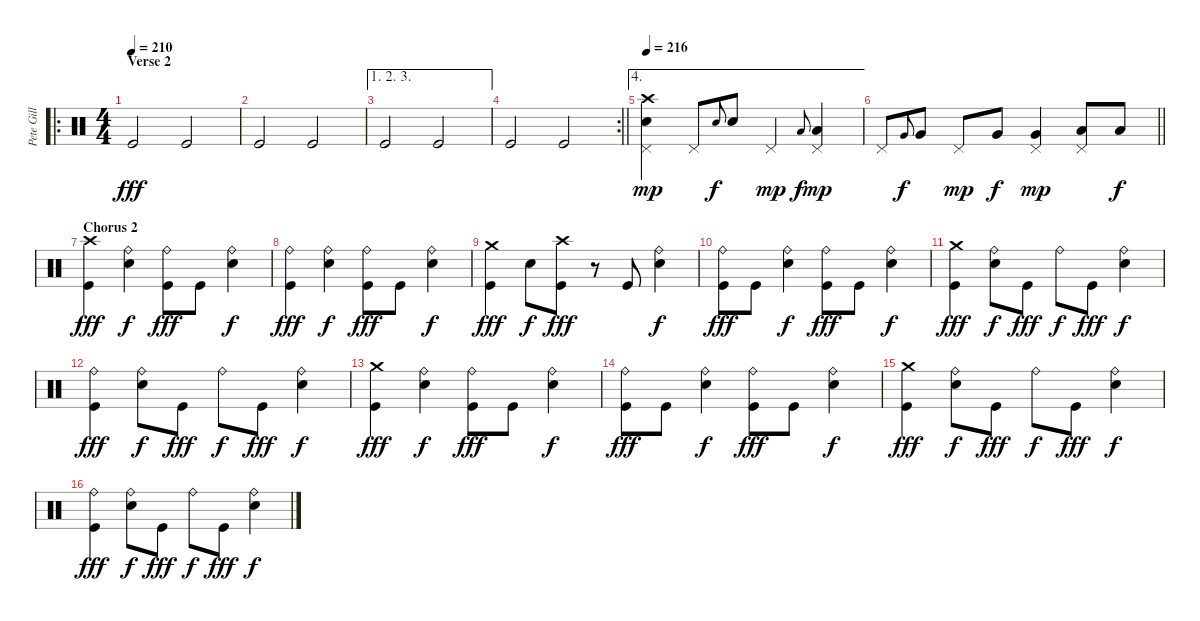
\track ("Pete Gill" "Pete Gill") {instrument percussion}
\staff {score}
\articulation defaults
\ro
\ts (4 4)
\section ("" "Verse 2")
\tempo 210
\clef neutral
\ks c "Kick (hit)".2{dy fff} "Kick (hit)".2
|
"Kick (hit)".2 "Kick (hit)".2 |
\ae (1 2 3)
"Kick (hit)".2 "Kick (hit)".2 |
\rc 2
\barLineRight lightlight "Kick (hit)".2 "Kick (hit)".2
|
\ae 4
\tempo 216
("Crash high (hit)" "Pedal Hi-Hat (hit)" "Electric Snare (hit)").4{dy mp} "Pedal Hi-Hat (hit)".8 "Electric Snare (hit)".8{gr onbeat dy f} "Electric Snare (hit)".8 "Pedal Hi-Hat (hit)".4{dy mp} "Low Tom (hit)".8{gr onbeat dy f} ("Pedal Hi-Hat (hit)" "Low Tom (hit)").4{dy mp} |
\barLineRight lightlight "Pedal Hi-Hat (hit)".8 "Very Low Tom (hit)".8{gr onbeat dy f} "Very Low Tom (hit)".8 "Pedal Hi-Hat (hit)".8{dy mp} "Very Low Tom (hit)".8{dy f}
("Pedal Hi-Hat (hit)" "Very Low Tom (hit)").4{dy mp} ("Pedal Hi-Hat (hit)" "Low Floor Tom (hit)").8 "Low Floor Tom (hit)".8{dy f} |
\section ("" "Chorus 2")
("Crash high (hit)" "Kick (hit)").4{dy fff} ("Ride (bell)" "Electric Snare (hit)").4{dy f} ("Ride (bell)" "Kick (hit)").8{dy fff} "Kick (hit)".8 ("Ride (bell)" "Electric Snare (hit)").4{dy f} |
("Ride (bell)" "Kick (hit)").4{dy fff} ("Ride (bell)" "Electric Snare (hit)").4{dy f} ("Ride (bell)" "Kick (hit)").8{dy fff} "Kick (hit)".8 ("Ride (bell)" "Electric Snare (hit)").4{dy f} |
("Crash medium (hit)" "Kick (hit)").4{dy fff} "Electric Snare (hit)".8{dy f} ("Crash high (hit)" "Kick (hit)").8{dy fff} r.8 "Kick (hit)".8 ("Ride (bell)" "Electric Snare (hit)").4{dy f} |
("Ride (bell)" "Kick (hit)").8{dy fff} "Kick (hit)".8 ("Ride (bell)" "Electric Snare (hit)").4{dy f} ("Ride (bell)" "Kick (hit)").8{dy fff} "Kick (hit)".8 ("Ride (bell)" "Electric Snare (hit)").4{dy f} |
("Crash medium (hit)" "Kick (hit)").4{dy fff} ("Ride (bell)" "Electric Snare (hit)").8{dy f} "Kick (hit)".8{dy fff} "Ride (bell)".8{dy f} "Kick (hit)".8{dy fff} ("Ride (bell)" "Electric Snare (hit)").4{dy f} |
("Ride (bell)" "Kick (hit)").4{dy fff} ("Ride (bell)" "Electric Snare (hit)").8{dy f} "Kick (hit)".8{dy fff} "Ride (bell)".8{dy f} "Kick (hit)".8{dy fff} ("Ride (bell)" "Electric Snare (hit)").4{dy f} |
("Crash medium (hit)" "Kick (hit)").4{dy fff} ("Ride (bell)" "Electric Snare (hit)").4{dy f} ("Ride (bell)" "Kick (hit)").8{dy fff} "Kick (hit)".8 ("Ride (bell)" "Electric Snare (hit)").4{dy f} |
("Ride (bell)" "Kick (hit)").8{dy fff} "Kick (hit)".8 ("Ride (bell)" "Electric Snare (hit)").4{dy f} ("Ride (bell)" "Kick (hit)").8{dy fff} "Kick (hit)".8 ("Ride (bell)" "Electric Snare (hit)").4{dy f} |
("Crash medium (hit)" "Kick (hit)").4{dy fff} ("Ride (bell)" "Electric Snare (hit)").8{dy f} "Kick (hit)".8{dy fff} "Ride (bell)".8{dy f} "Kick (hit)".8{dy fff} ("Ride (bell)" "Electric Snare (hit)").4{dy f} |
("Ride (bell)" "Kick (hit)").4{dy fff} ("Ride (bell)" "Electric Snare (hit)").8{dy f} "Kick (hit)".8{dy fff} "Ride (bell)".8{dy f} "Kick (hit)".8{dy fff} ("Ride (bell)" "Electric Snare (hit)").4{dy f}
